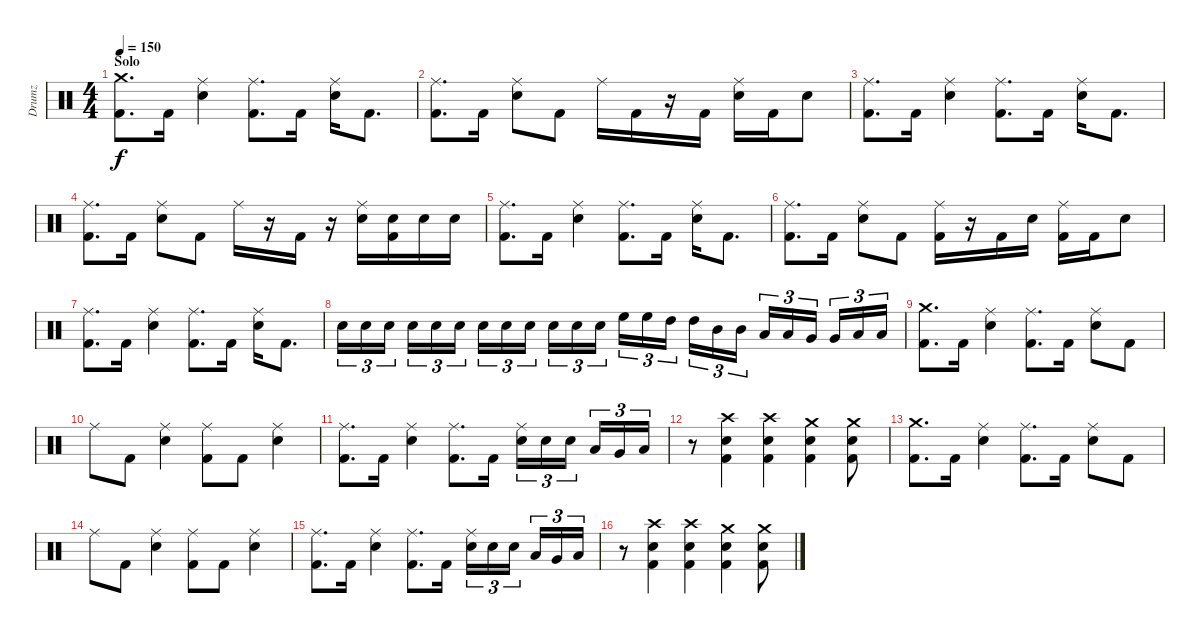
\track ("Drumz" "Drumz") {instrument percussion}
\staff {score}
\articulation defaults
\ts (4 4)
\section ("" "Solo")
\tempo 150
\clef neutral
\ks c
("Crash medium (hit)" "Kick (hit) 2").8{d dy f} "Kick (hit) 2".16 ("Ride (middle)" "Electric Snare (hit)").4 ("Ride (middle)" "Kick (hit) 2").8{d} "Kick (hit) 2".16 ("Ride (middle)" "Electric Snare (hit)").16 "Kick (hit) 2".8{d} |
("Ride (middle)" "Kick (hit) 2").8{d} "Kick (hit) 2".16 ("Ride (middle)" "Electric Snare (hit)").8 "Kick (hit) 2".8 "Ride (middle)".16 "Kick (hit) 2".16 r.16 "Kick (hit) 2".16 ("Ride (middle)" "Electric Snare (hit)").16 "Kick (hit) 2".16 "Electric Snare (hit)".8 |
("Ride (middle)" "Kick (hit) 2").8{d} "Kick (hit) 2".16 ("Ride (middle)" "Electric Snare (hit)").4 ("Ride (middle)" "Kick (hit) 2").8{d} "Kick (hit) 2".16 ("Ride (middle)" "Electric Snare (hit)").16 "Kick (hit) 2".8{d} |
("Ride (middle)" "Kick (hit) 2").8{d} "Kick (hit) 2".16 ("Ride (middle)" "Electric Snare (hit)").8 "Kick (hit) 2".8 "Ride (middle)".16 r.16 "Kick (hit) 2".16 r.16 ("Ride (middle)" "Electric Snare (hit)").16 ("Electric Snare (hit)" "Kick (hit) 2").16 "Electric Snare (hit)".16 "Electric Snare (hit)".16 |
("Ride (middle)" "Kick (hit) 2").8{d} "Kick (hit) 2".16 ("Ride (middle)" "Electric Snare (hit)").4 ("Ride (middle)" "Kick (hit) 2").8{d} "Kick (hit) 2".16 ("Ride (middle)" "Electric Snare (hit)").16 "Kick (hit) 2".8{d} |
("Ride (middle)" "Kick (hit) 2").8{d} "Kick (hit) 2".16 ("Ride (middle)" "Electric Snare (hit)").8 "Kick (hit) 2".8 ("Ride (middle)" "Kick (hit) 2").16 r.16 "Kick (hit) 2".16 "Electric Snare (hit)".16 ("Ride (middle)" "Kick (hit) 2").16 "Kick (hit) 2".16 "Electric Snare (hit)".8 |
("Ride (middle)" "Kick (hit) 2").8{d} "Kick (hit) 2".16 ("Ride (middle)" "Electric Snare (hit)").4 ("Ride (middle)" "Kick (hit) 2").8{d} "Kick (hit) 2".16 ("Ride (middle)" "Electric Snare (hit)").16 "Kick (hit) 2".8{d} |
"Electric Snare (hit)".16{tu (3 2)} "Electric Snare (hit)".16{tu (3 2)} "Electric Snare (hit)".16{tu (3 2) beam splitsecondary} "Electric Snare (hit)".16{tu (3 2)} "Electric Snare (hit)".16{tu (3 2)} "Electric Snare (hit)".16{tu (3 2)} "Electric Snare (hit)".16{tu (3 2)} "Electric Snare (hit)".16{tu (3 2)} "Electric Snare (hit)".16{tu (3 2) beam splitsecondary} "Electric Snare (hit)".16{tu (3 2)} "Electric Snare (hit)".16{tu (3 2)} "Electric Snare (hit)".16{tu (3 2)} "High Floor Tom (hit)".16{tu (3 2)} "High Floor Tom (hit)".16{tu (3 2)} "High Tom (hit)".16{tu (3 2) beam splitsecondary} "High Tom (hit)".16{tu (3 2)} "Mid Tom (hit)".16{tu (3 2)} "Mid Tom (hit)".16{tu (3 2)} "Low Tom (hit)".16{tu (3 2)} "Low Tom (hit)".16{tu (3 2)} "Very Low Tom (hit)".16{tu (3 2) beam splitsecondary} "Very Low Tom (hit)".16{tu (3 2)} "Low Floor Tom (hit)".16{tu (3 2)} "Low Floor Tom (hit)".16{tu (3 2)} |
("Crash medium (hit)" "Kick (hit) 2").8{d} "Kick (hit) 2".16 ("Ride (middle)" "Electric Snare (hit)").4 ("Ride (middle)" "Kick (hit) 2").8{d} "Kick (hit) 2".16 ("Ride (middle)" "Electric Snare (hit)").8 "Kick (hit) 2".8 |
"Ride (middle)".8 "Kick (hit) 2".8 ("Ride (middle)" "Electric Snare (hit)").4 ("Ride (middle)" "Kick (hit) 2").8 "Kick (hit) 2".8 ("Ride (middle)" "Electric Snare (hit)").4 |
("Ride (middle)" "Kick (hit) 2").8{d} "Kick (hit) 2".16 ("Ride (middle)" "Electric Snare (hit)").4 ("Ride (middle)" "Kick (hit) 2").8{d} "Kick (hit) 2".16 ("Ride (middle)" "Electric Snare (hit)").16{tu (3 2)} "Electric Snare (hit)".16{tu (3 2)} "Electric Snare (hit)".16{tu (3 2) beam splitsecondary} "Low Tom (hit)".16{tu (3 2)} "Very Low Tom (hit)".16{tu (3 2)} "Low Floor Tom (hit)".16{tu (3 2)} |
r.8 ("Crash high (hit)" "Electric Snare (hit)" "Kick (hit) 2").4 ("Crash high (hit)" "Electric Snare (hit)" "Kick (hit) 2").4 ("Crash medium (hit)" "Electric Snare (hit)" "Kick (hit) 2").4 ("Crash medium (hit)" "Electric Snare (hit)" "Kick (hit) 2").8 |
("Crash medium (hit)" "Kick (hit) 2").8{d} "Kick (hit) 2".16 ("Ride (middle)" "Electric Snare (hit)").4 ("Ride (middle)" "Kick (hit) 2").8{d} "Kick (hit) 2".16 ("Ride (middle)" "Electric Snare (hit)").8 "Kick (hit) 2".8 |
"Ride (middle)".8 "Kick (hit) 2".8 ("Ride (middle)" "Electric Snare (hit)").4 ("Ride (middle)" "Kick (hit) 2").8 "Kick (hit) 2".8 ("Ride (middle)" "Electric Snare (hit)").4 |
("Ride (middle)" "Kick (hit) 2").8{d} "Kick (hit) 2".16 ("Ride (middle)" "Electric Snare (hit)").4 ("Ride (middle)" "Kick (hit) 2").8{d} "Kick (hit) 2".16 ("Ride (middle)" "Electric Snare (hit)").16{tu (3 2)} "Electric Snare (hit)".16{tu (3 2)} "Electric Snare (hit)".16{tu (3 2) beam splitsecondary} "Low Tom (hit)".16{tu (3 2)} "Very Low Tom (hit)".16{tu (3 2)} "Low Floor Tom (hit)".16{tu (3 2)} |
r.8 ("Crash high (hit)" "Electric Snare (hit)" "Kick (hit) 2").4 ("Crash high (hit)" "Electric Snare (hit)" "Kick (hit) 2").4 ("Crash medium (hit)" "Electric Snare (hit)" "Kick (hit) 2").4 ("Crash medium (hit)" "Electric Snare (hit)" "Kick (hit) 2").8
